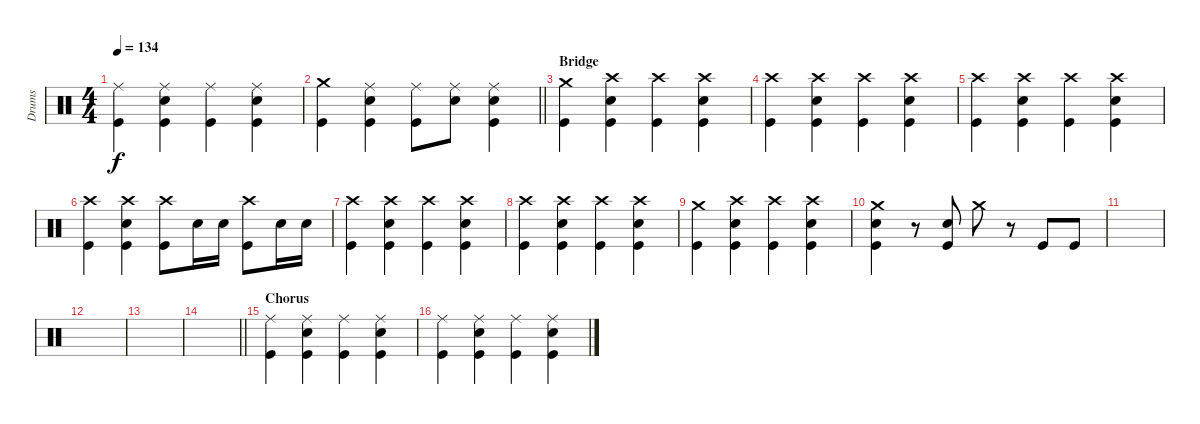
\track ("Drums" "Drums") {instrument percussion}
\staff {score}
\articulation defaults
\ts (4 4)
\tempo 134
\clef neutral
\ks c
("Ride (middle)" "Kick (hit)").4{dy f} ("Ride (middle)" "Kick (hit)" "Snare (hit) 2").4 ("Ride (middle)" "Kick (hit)").4 ("Ride (middle)" "Kick (hit)" "Snare (hit) 2").4 |
\barLineRight lightlight
("Crash medium (hit)" "Kick (hit)").4 ("Ride (middle)" "Kick (hit)" "Snare (hit) 2").4 ("Ride (middle)" "Kick (hit)").8 ("Ride (middle)" "Snare (hit) 2").8 ("Ride (middle)" "Kick (hit)" "Snare (hit) 2").4 |
\section ("" "Bridge")
("Crash medium (hit)" "Kick (hit)").4 ("Crash high (hit)" "Kick (hit)" "Snare (hit) 2").4 ("Crash high (hit)" "Kick (hit)").4 ("Crash high (hit)" "Kick (hit)" "Snare (hit) 2").4 |
("Crash high (hit)" "Kick (hit)").4 ("Crash high (hit)" "Kick (hit)" "Snare (hit) 2").4 ("Crash high (hit)" "Kick (hit)").4 ("Crash high (hit)" "Kick (hit)" "Snare (hit) 2").4 |
("Crash high (hit)" "Kick (hit)").4 ("Crash high (hit)" "Kick (hit)" "Snare (hit) 2").4 ("Crash high (hit)" "Kick (hit)").4 ("Crash high (hit)" "Kick (hit)" "Snare (hit) 2").4 |
("Crash high (hit)" "Kick (hit)").4 ("Crash high (hit)" "Kick (hit)" "Snare (hit) 2").4 ("Crash high (hit)" "Kick (hit)").8 "Snare (hit) 2".16 "Snare (hit) 2".16 ("Crash high (hit)" "Kick (hit)").8 "Snare (hit) 2".16 "Snare (hit) 2".16 |
("Crash high (hit)" "Kick (hit)").4 ("Crash high (hit)" "Kick (hit)" "Snare (hit) 2").4 ("Crash high (hit)" "Kick (hit)").4 ("Crash high (hit)" "Kick (hit)" "Snare (hit) 2").4 |
("Crash high (hit)" "Kick (hit)").4 ("Crash high (hit)" "Kick (hit)" "Snare (hit) 2").4 ("Crash high (hit)" "Kick (hit)").4 ("Crash high (hit)" "Kick (hit)" "Snare (hit) 2").4 |
("Crash medium (hit)" "Kick (hit)").4 ("Crash high (hit)" "Kick (hit)" "Snare (hit) 2").4 ("Crash high (hit)" "Kick (hit)").4 ("Crash high (hit)" "Kick (hit)" "Snare (hit) 2").4 |
("Crash medium (hit)" "Kick (hit)" "Snare (hit) 2").4 r.8 ("Kick (hit)" "Snare (hit) 2").8 "Crash medium (hit)".8 r.8 "Kick (hit)".8 "Kick (hit)".8 |
|
|
|
\barLineRight lightlight
|
\section ("" "Chorus")
("Ride (middle)" "Kick (hit)").4 ("Ride (middle)" "Kick (hit)" "Snare (hit) 2").4 ("Ride (middle)" "Kick (hit)").4 ("Ride (middle)" "Kick (hit)" "Snare (hit) 2").4 |
("Ride (middle)" "Kick (hit)").4 ("Ride (middle)" "Kick (hit)" "Snare (hit) 2").4 ("Ride (middle)" "Kick (hit)").4 ("Ride (middle)" "Kick (hit)" "Snare (hit) 2").4
